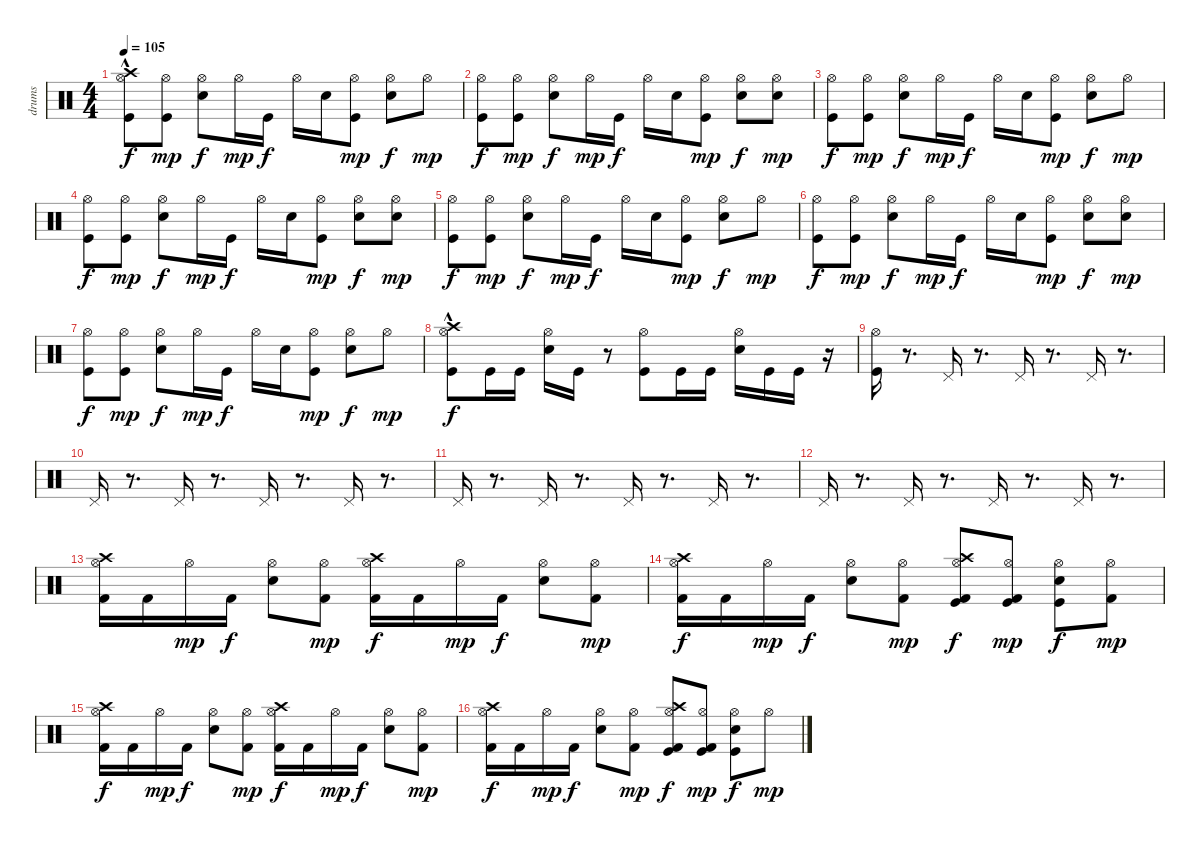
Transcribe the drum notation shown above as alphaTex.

\track ("drums" "drums") {instrument percussion}
\staff {score}
\articulation defaults
\ts (4 4)
\tempo 105
\clef neutral
\ks c
("Kick (hit)" "Hi-Hat (open)" "Crash high (hit)"{hac}).8{dy f} ("Kick (hit)" "Hi-Hat (open)").8{dy mp} ("Snare (hit) 2" "Hi-Hat (open)").8{dy f} "Hi-Hat (open)".16{dy mp} "Kick (hit)".16{dy f} "Hi-Hat (open)".16 "Snare (hit) 2".16 ("Kick (hit)" "Hi-Hat (open)").8{dy mp} ("Snare (hit) 2" "Hi-Hat (open)").8{dy f} "Hi-Hat (open)".8{dy mp} |
("Hi-Hat (open)" "Kick (hit)").8{dy f} ("Kick (hit)" "Hi-Hat (open)").8{dy mp} ("Snare (hit) 2" "Hi-Hat (open)").8{dy f} "Hi-Hat (open)".16{dy mp} "Kick (hit)".16{dy f} "Hi-Hat (open)".16 "Snare (hit) 2".16 ("Kick (hit)" "Hi-Hat (open)").8{dy mp} ("Snare (hit) 2" "Hi-Hat (open)").8{dy f} ("Hi-Hat (open)" "Snare (hit) 2").8{dy mp} |
("Hi-Hat (open)" "Kick (hit)").8{dy f} ("Kick (hit)" "Hi-Hat (open)").8{dy mp} ("Snare (hit) 2" "Hi-Hat (open)").8{dy f} "Hi-Hat (open)".16{dy mp} "Kick (hit)".16{dy f} "Hi-Hat (open)".16 "Snare (hit) 2".16 ("Kick (hit)" "Hi-Hat (open)").8{dy mp} ("Snare (hit) 2" "Hi-Hat (open)").8{dy f} "Hi-Hat (open)".8{dy mp} |
("Hi-Hat (open)" "Kick (hit)").8{dy f} ("Kick (hit)" "Hi-Hat (open)").8{dy mp} ("Snare (hit) 2" "Hi-Hat (open)").8{dy f} "Hi-Hat (open)".16{dy mp} "Kick (hit)".16{dy f} "Hi-Hat (open)".16 "Snare (hit) 2".16 ("Kick (hit)" "Hi-Hat (open)").8{dy mp} ("Snare (hit) 2" "Hi-Hat (open)").8{dy f} ("Hi-Hat (open)" "Snare (hit) 2").8{dy mp} |
("Hi-Hat (open)" "Kick (hit)").8{dy f} ("Kick (hit)" "Hi-Hat (open)").8{dy mp} ("Snare (hit) 2" "Hi-Hat (open)").8{dy f} "Hi-Hat (open)".16{dy mp} "Kick (hit)".16{dy f} "Hi-Hat (open)".16 "Snare (hit) 2".16 ("Kick (hit)" "Hi-Hat (open)").8{dy mp} ("Snare (hit) 2" "Hi-Hat (open)").8{dy f} "Hi-Hat (open)".8{dy mp} |
("Hi-Hat (open)" "Kick (hit)").8{dy f} ("Kick (hit)" "Hi-Hat (open)").8{dy mp} ("Snare (hit) 2" "Hi-Hat (open)").8{dy f} "Hi-Hat (open)".16{dy mp} "Kick (hit)".16{dy f} "Hi-Hat (open)".16 "Snare (hit) 2".16 ("Kick (hit)" "Hi-Hat (open)").8{dy mp} ("Snare (hit) 2" "Hi-Hat (open)").8{dy f} ("Hi-Hat (open)" "Snare (hit) 2").8{dy mp} |
("Hi-Hat (open)" "Kick (hit)").8{dy f} ("Kick (hit)" "Hi-Hat (open)").8{dy mp} ("Snare (hit) 2" "Hi-Hat (open)").8{dy f} "Hi-Hat (open)".16{dy mp} "Kick (hit)".16{dy f} "Hi-Hat (open)".16 "Snare (hit) 2".16 ("Kick (hit)" "Hi-Hat (open)").8{dy mp} ("Snare (hit) 2" "Hi-Hat (open)").8{dy f} "Hi-Hat (open)".8{dy mp} |
("Kick (hit)" "Hi-Hat (open)" "Crash high (hit)"{hac}).8{dy f} "Kick (hit)".16 "Kick (hit)".16 ("Snare (hit) 2" "Hi-Hat (open)").16 "Kick (hit)".16 r.8 ("Kick (hit)" "Hi-Hat (open)").8 "Kick (hit)".16 "Kick (hit)".16 ("Snare (hit) 2" "Hi-Hat (open)").16 "Kick (hit)".16 "Kick (hit)".16 r.16 |
("Kick (hit)" "Hi-Hat (open)").16 r.8{d} "Pedal Hi-Hat (hit)".16 r.8{d} "Pedal Hi-Hat (hit)".16 r.8{d} "Pedal Hi-Hat (hit)".16 r.8{d} |
"Pedal Hi-Hat (hit)".16 r.8{d} "Pedal Hi-Hat (hit)".16 r.8{d} "Pedal Hi-Hat (hit)".16 r.8{d} "Pedal Hi-Hat (hit)".16 r.8{d} |
"Pedal Hi-Hat (hit)".16 r.8{d} "Pedal Hi-Hat (hit)".16 r.8{d} "Pedal Hi-Hat (hit)".16 r.8{d} "Pedal Hi-Hat (hit)".16 r.8{d} |
"Pedal Hi-Hat (hit)".16 r.8{d} "Pedal Hi-Hat (hit)".16 r.8{d} "Pedal Hi-Hat (hit)".16 r.8{d} "Pedal Hi-Hat (hit)".16 r.8{d} |
("Kick (hit) 2" "Hi-Hat (open)" "Crash high (hit)").16 "Kick (hit) 2".16 "Hi-Hat (open)".16{dy mp} "Kick (hit) 2".16{dy f} ("Snare (hit) 2" "Hi-Hat (open)").8 ("Kick (hit) 2" "Hi-Hat (open)").8{dy mp} ("Kick (hit) 2" "Hi-Hat (open)" "Crash high (hit)").16{dy f} "Kick (hit) 2".16 "Hi-Hat (open)".16{dy mp} "Kick (hit) 2".16{dy f} ("Snare (hit) 2" "Hi-Hat (open)").8 ("Kick (hit) 2" "Hi-Hat (open)").8{dy mp} |
("Kick (hit) 2" "Hi-Hat (open)" "Crash high (hit)").16{dy f} "Kick (hit) 2".16 "Hi-Hat (open)".16{dy mp} "Kick (hit) 2".16{dy f} ("Snare (hit) 2" "Hi-Hat (open)").8 ("Kick (hit) 2" "Hi-Hat (open)").8{dy mp} ("Kick (hit) 2" "Hi-Hat (open)" "Crash high (hit)" "Kick (hit)").8{dy f} ("Kick (hit) 2" "Hi-Hat (open)" "Kick (hit)").8{dy mp} ("Snare (hit) 2" "Hi-Hat (open)" "Kick (hit)").8{dy f} ("Hi-Hat (open)" "Kick (hit) 2").8{dy mp} |
("Crash high (hit)" "Hi-Hat (open)" "Kick (hit) 2").16{dy f} "Kick (hit) 2".16 "Hi-Hat (open)".16{dy mp} "Kick (hit) 2".16{dy f} ("Snare (hit) 2" "Hi-Hat (open)").8 ("Kick (hit) 2" "Hi-Hat (open)").8{dy mp} ("Kick (hit) 2" "Hi-Hat (open)" "Crash high (hit)").16{dy f} "Kick (hit) 2".16 "Hi-Hat (open)".16{dy mp} "Kick (hit) 2".16{dy f} ("Snare (hit) 2" "Hi-Hat (open)").8 ("Kick (hit) 2" "Hi-Hat (open)").8{dy mp} |
("Kick (hit) 2" "Hi-Hat (open)" "Crash high (hit)").16{dy f} "Kick (hit) 2".16 "Hi-Hat (open)".16{dy mp} "Kick (hit) 2".16{dy f} ("Snare (hit) 2" "Hi-Hat (open)").8 ("Kick (hit) 2" "Hi-Hat (open)").8{dy mp} ("Kick (hit) 2" "Hi-Hat (open)" "Crash high (hit)" "Kick (hit)").8{dy f} ("Kick (hit) 2" "Hi-Hat (open)" "Kick (hit)").8{dy mp} ("Snare (hit) 2" "Hi-Hat (open)" "Kick (hit)").8{dy f} "Hi-Hat (open)".8{dy mp}
